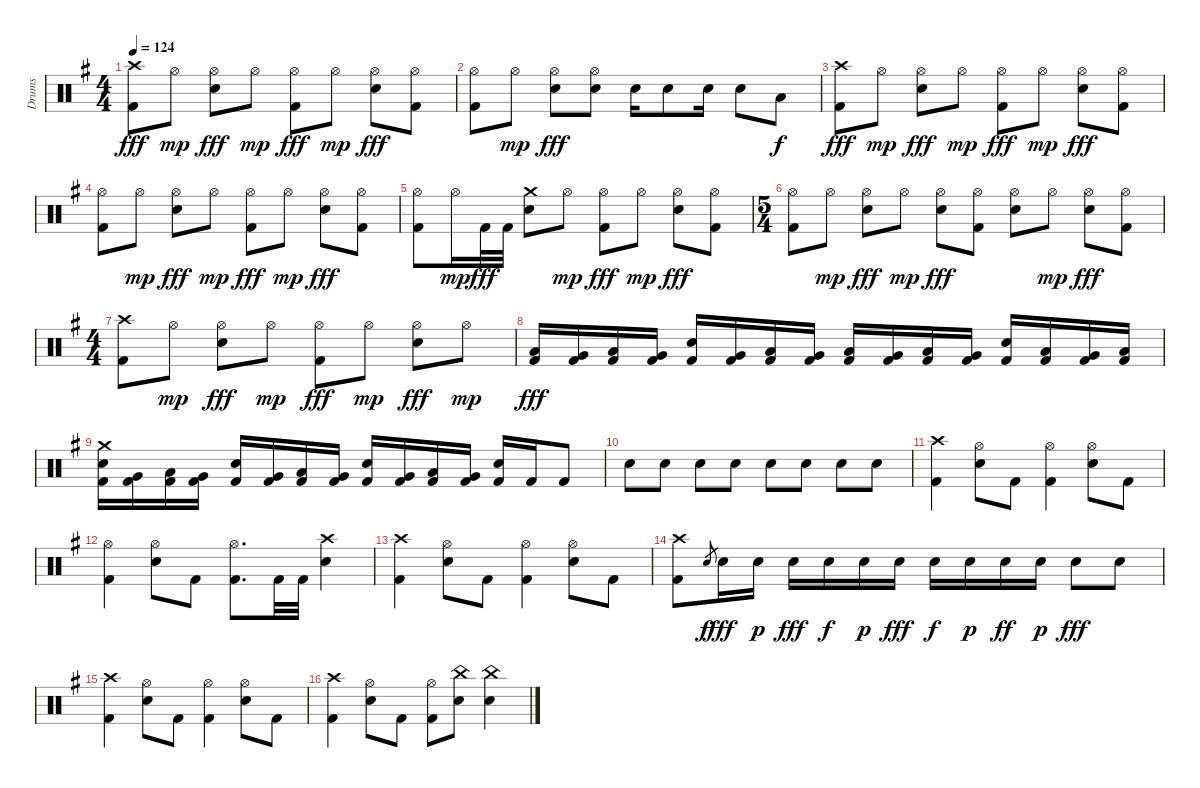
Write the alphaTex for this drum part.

\track ("Drums" "Drums") {instrument percussion}
\staff {score}
\articulation defaults
\ts (4 4)
\tempo 124
\clef neutral
\ks g
("Crash high (hit)" "Kick (hit) 2").8{dy fff} "Hi-Hat (open)".8{dy mp} ("Hi-Hat (open)" "Electric Snare (hit)").8{dy fff} "Hi-Hat (open)".8{dy mp} ("Hi-Hat (open)" "Kick (hit) 2").8{dy fff} "Hi-Hat (open)".8{dy mp} ("Hi-Hat (open)" "Electric Snare (hit)").8{dy fff} ("Hi-Hat (open)" "Kick (hit) 2").8 |
("Hi-Hat (open)" "Kick (hit) 2").8 "Hi-Hat (open)".8{dy mp} ("Hi-Hat (open)" "Electric Snare (hit)").8{dy fff} ("Hi-Hat (open)" "Electric Snare (hit)").8 "Electric Snare (hit)".16 "Electric Snare (hit)".8 "Electric Snare (hit)".16 "Electric Snare (hit)".8 "Low Tom (hit)".8{dy f} |
("Crash high (hit)" "Kick (hit) 2").8{dy fff} "Hi-Hat (open)".8{dy mp} ("Hi-Hat (open)" "Electric Snare (hit)").8{dy fff} "Hi-Hat (open)".8{dy mp} ("Hi-Hat (open)" "Kick (hit) 2").8{dy fff} "Hi-Hat (open)".8{dy mp} ("Hi-Hat (open)" "Electric Snare (hit)").8{dy fff} ("Hi-Hat (open)" "Kick (hit) 2").8 |
("Hi-Hat (open)" "Kick (hit) 2").8 "Hi-Hat (open)".8{dy mp} ("Hi-Hat (open)" "Electric Snare (hit)").8{dy fff} "Hi-Hat (open)".8{dy mp} ("Hi-Hat (open)" "Kick (hit) 2").8{dy fff} "Hi-Hat (open)".8{dy mp} ("Hi-Hat (open)" "Electric Snare (hit)").8{dy fff} ("Hi-Hat (open)" "Kick (hit) 2").8 |
("Hi-Hat (open)" "Kick (hit) 2").8 "Hi-Hat (open)".16{dy mp} "Kick (hit) 2".32{dy fff} "Kick (hit) 2".32 ("Crash medium (hit)" "Electric Snare (hit)").8 "Hi-Hat (open)".8{dy mp} ("Hi-Hat (open)" "Kick (hit) 2").8{dy fff} "Hi-Hat (open)".8{dy mp} ("Hi-Hat (open)" "Electric Snare (hit)").8{dy fff} ("Hi-Hat (open)" "Kick (hit) 2").8 |
\ts (5 4)
("Hi-Hat (open)" "Kick (hit) 2").8 "Hi-Hat (open)".8{dy mp} ("Hi-Hat (open)" "Electric Snare (hit)").8{dy fff} "Hi-Hat (open)".8{dy mp} ("Hi-Hat (open)" "Electric Snare (hit)").8{dy fff} ("Hi-Hat (open)" "Kick (hit) 2").8 ("Hi-Hat (open)" "Electric Snare (hit)").8 "Hi-Hat (open)".8{dy mp} ("Hi-Hat (open)" "Electric Snare (hit)").8{dy fff} ("Hi-Hat (open)" "Kick (hit) 2").8 |
\ts (4 4)
("Crash high (hit)" "Kick (hit) 2").8 "Hi-Hat (open)".8{dy mp} ("Hi-Hat (open)" "Electric Snare (hit)").8{dy fff} "Hi-Hat (open)".8{dy mp} ("Hi-Hat (open)" "Kick (hit) 2").8{dy fff} "Hi-Hat (open)".8{dy mp} ("Hi-Hat (open)" "Electric Snare (hit)").8{dy fff} "Hi-Hat (open)".8{dy mp} |
("Low Tom (hit)" "Kick (hit) 2").16{dy fff} ("Very Low Tom (hit)" "Kick (hit) 2").16 ("Low Tom (hit)" "Kick (hit) 2").16 ("Very Low Tom (hit)" "Kick (hit) 2").16 ("Electric Snare (hit)" "Kick (hit) 2").16 ("Very Low Tom (hit)" "Kick (hit) 2").16 ("Low Tom (hit)" "Kick (hit) 2").16 ("Very Low Tom (hit)" "Kick (hit) 2").16 ("Low Tom (hit)" "Kick (hit) 2").16 ("Very Low Tom (hit)" "Kick (hit) 2").16 ("Low Tom (hit)" "Kick (hit) 2").16 ("Very Low Tom (hit)" "Kick (hit) 2").16 ("Electric Snare (hit)" "Kick (hit) 2").16 ("Low Tom (hit)" "Kick (hit) 2").16 ("Very Low Tom (hit)" "Kick (hit) 2").16 ("Low Tom (hit)" "Kick (hit) 2").16 |
("Crash medium (hit)" "Electric Snare (hit)" "Kick (hit) 2").16 ("Very Low Tom (hit)" "Kick (hit) 2").16 ("Low Tom (hit)" "Kick (hit) 2").16 ("Very Low Tom (hit)" "Kick (hit) 2").16 ("Electric Snare (hit)" "Kick (hit) 2").16 ("Very Low Tom (hit)" "Kick (hit) 2").16 ("Low Tom (hit)" "Kick (hit) 2").16 ("Very Low Tom (hit)" "Kick (hit) 2").16 ("Electric Snare (hit)" "Kick (hit) 2").16 ("Very Low Tom (hit)" "Kick (hit) 2").16 ("Low Tom (hit)" "Kick (hit) 2").16 ("Very Low Tom (hit)" "Kick (hit) 2").16 ("Electric Snare (hit)" "Kick (hit) 2").16 "Kick (hit) 2".16 "Kick (hit) 2".8 |
"Electric Snare (hit)".8 "Electric Snare (hit)".8 "Electric Snare (hit)".8 "Electric Snare (hit)".8 "Electric Snare (hit)".8 "Electric Snare (hit)".8 "Electric Snare (hit)".8 "Electric Snare (hit)".8 |
("Crash high (hit)" "Kick (hit) 2").4 ("Hi-Hat (open)" "Electric Snare (hit)").8 "Kick (hit) 2".8 ("Hi-Hat (open)" "Kick (hit) 2").4 ("Hi-Hat (open)" "Electric Snare (hit)").8 "Kick (hit) 2".8 |
("Hi-Hat (open)" "Kick (hit) 2").4 ("Hi-Hat (open)" "Electric Snare (hit)").8 "Kick (hit) 2".8 ("Hi-Hat (open)" "Kick (hit) 2").8{d} "Kick (hit) 2".32 "Kick (hit) 2".32 ("Crash high (hit)" "Electric Snare (hit)").4 |
("Crash high (hit)" "Kick (hit) 2").4 ("Hi-Hat (open)" "Electric Snare (hit)").8 "Kick (hit) 2".8 ("Hi-Hat (open)" "Kick (hit) 2").4 ("Hi-Hat (open)" "Electric Snare (hit)").8 "Kick (hit) 2".8 |
("Crash high (hit)" "Kick (hit) 2").8 "Electric Snare (hit)".8{gr dy f} "Electric Snare (hit)".16{dy fff} "Electric Snare (hit)".16{dy p} "Electric Snare (hit)".16{dy fff} "Electric Snare (hit)".16{dy f} "Electric Snare (hit)".16{dy p} "Electric Snare (hit)".16{dy fff} "Electric Snare (hit)".16{dy f} "Electric Snare (hit)".16{dy p} "Electric Snare (hit)".16{dy ff} "Electric Snare (hit)".16{dy p} "Electric Snare (hit)".8{dy fff} "Electric Snare (hit)".8 |
("Crash high (hit)" "Kick (hit) 2").4 ("Hi-Hat (open)" "Electric Snare (hit)").8 "Kick (hit) 2".8 ("Hi-Hat (open)" "Kick (hit) 2").4 ("Hi-Hat (open)" "Electric Snare (hit)").8 "Kick (hit) 2".8 |
("Crash high (hit)" "Kick (hit) 2").4 ("Hi-Hat (open)" "Electric Snare (hit)").8 "Kick (hit) 2".8 ("Hi-Hat (open)" "Kick (hit) 2").8 ("China (hit)" "Electric Snare (hit)").8 ("China (hit)" "Electric Snare (hit)").4
